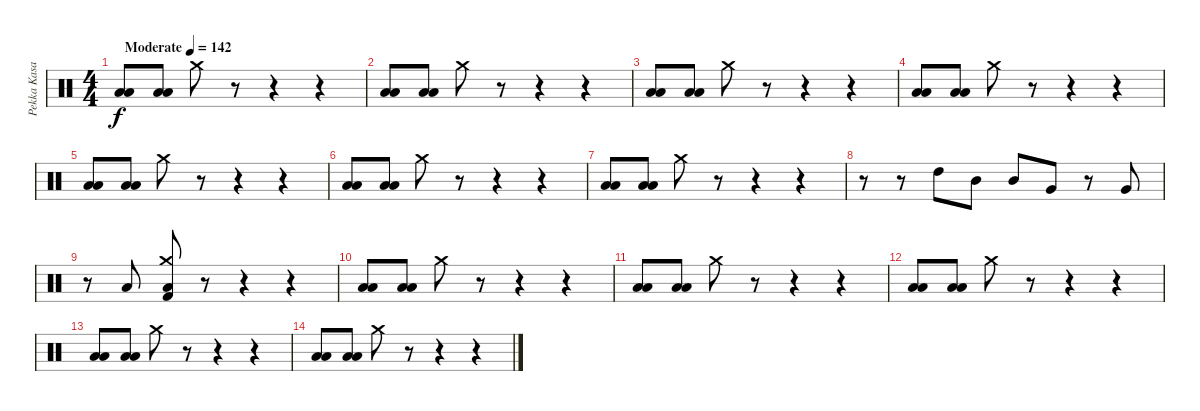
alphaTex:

\track ("Pekka Kasari (drums)" "Pekka Kasa") {instrument percussion}
\staff {score}
\articulation defaults
\ts (4 4)
\tempo (142 "Moderate")
\clef neutral
\ks c
("Low Tom (hit)" "Low Floor Tom (hit)").8{dy f} ("Low Tom (hit)" "Low Floor Tom (hit)").8 "Crash medium (hit)".8 r.8 r.4 r.4 |
("Low Tom (hit)" "Low Floor Tom (hit)").8 ("Low Tom (hit)" "Low Floor Tom (hit)").8 "Crash medium (hit)".8 r.8 r.4 r.4 |
("Low Tom (hit)" "Low Floor Tom (hit)").8 ("Low Tom (hit)" "Low Floor Tom (hit)").8 "Crash medium (hit)".8 r.8 r.4 r.4 |
("Low Tom (hit)" "Low Floor Tom (hit)").8 ("Low Tom (hit)" "Low Floor Tom (hit)").8 "Crash medium (hit)".8 r.8 r.4 r.4 |
("Low Tom (hit)" "Low Floor Tom (hit)").8 ("Low Tom (hit)" "Low Floor Tom (hit)").8 "Crash medium (hit)".8 r.8 r.4 r.4 |
("Low Tom (hit)" "Low Floor Tom (hit)").8 ("Low Tom (hit)" "Low Floor Tom (hit)").8 "Crash medium (hit)".8 r.8 r.4 r.4 |
("Low Tom (hit)" "Low Floor Tom (hit)").8 ("Low Tom (hit)" "Low Floor Tom (hit)").8 "Crash medium (hit)".8 r.8 r.4 r.4 |
r.8 r.8 "High Tom (hit)".8 "Mid Tom (hit)".8 "Mid Tom (hit)".8 "Very Low Tom (hit)".8 r.8 "Very Low Tom (hit)".8 |
r.8 "Low Floor Tom (hit)".8 ("Crash medium (hit)" "Low Floor Tom (hit)" "Kick (hit) 2").8 r.8 r.4 r.4 |
("Low Tom (hit)" "Low Floor Tom (hit)").8 ("Low Tom (hit)" "Low Floor Tom (hit)").8 "Crash medium (hit)".8 r.8 r.4 r.4 |
("Low Tom (hit)" "Low Floor Tom (hit)").8 ("Low Tom (hit)" "Low Floor Tom (hit)").8 "Crash medium (hit)".8 r.8 r.4 r.4 |
("Low Tom (hit)" "Low Floor Tom (hit)").8 ("Low Tom (hit)" "Low Floor Tom (hit)").8 "Crash medium (hit)".8 r.8 r.4 r.4 |
("Low Tom (hit)" "Low Floor Tom (hit)").8 ("Low Tom (hit)" "Low Floor Tom (hit)").8 "Crash medium (hit)".8 r.8 r.4 r.4 |
("Low Tom (hit)" "Low Floor Tom (hit)").8 ("Low Tom (hit)" "Low Floor Tom (hit)").8 "Crash medium (hit)".8 r.8 r.4 r.4
